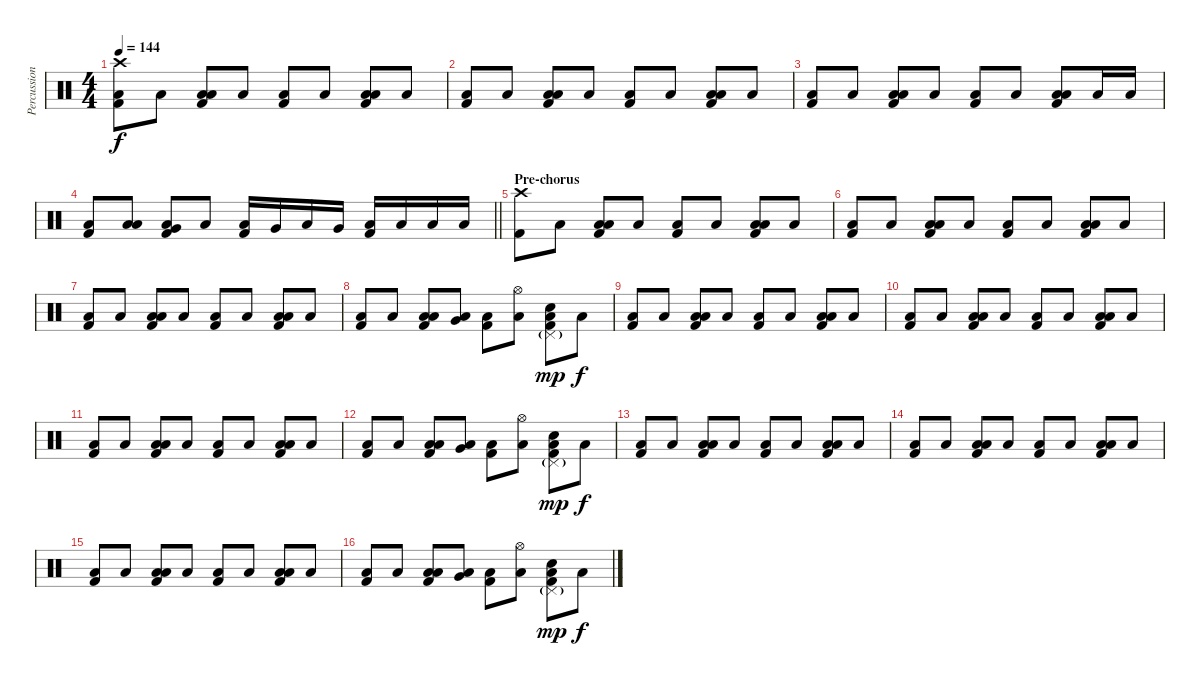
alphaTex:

\track ("Percussion" "Percussion") {instrument percussion}
\staff {score}
\articulation defaults
\ts (4 4)
\tempo 144
\clef neutral
\ks c
("Crash high (hit)" "Low Floor Tom (hit)" "Kick (hit) 2").8{dy f} "Low Floor Tom (hit)".8 ("Low Tom (hit)" "Low Floor Tom (hit)" "Kick (hit) 2").8 "Low Floor Tom (hit)".8 ("Low Floor Tom (hit)" "Kick (hit) 2").8 "Low Floor Tom (hit)".8 ("Low Tom (hit)" "Low Floor Tom (hit)" "Kick (hit) 2").8 "Low Floor Tom (hit)".8 |
("Low Floor Tom (hit)" "Kick (hit) 2").8 "Low Floor Tom (hit)".8 ("Low Tom (hit)" "Low Floor Tom (hit)" "Kick (hit) 2").8 "Low Floor Tom (hit)".8 ("Low Floor Tom (hit)" "Kick (hit) 2").8 "Low Floor Tom (hit)".8 ("Low Tom (hit)" "Low Floor Tom (hit)" "Kick (hit) 2").8 "Low Floor Tom (hit)".8 |
("Low Floor Tom (hit)" "Kick (hit) 2").8 "Low Floor Tom (hit)".8 ("Low Tom (hit)" "Low Floor Tom (hit)" "Kick (hit) 2").8 "Low Floor Tom (hit)".8 ("Low Floor Tom (hit)" "Kick (hit) 2").8 "Low Floor Tom (hit)".8 ("Low Tom (hit)" "Low Floor Tom (hit)" "Kick (hit) 2").8 "Low Floor Tom (hit)".16 "Low Tom (hit)".16 |
\barLineRight lightlight
("Low Floor Tom (hit)" "Kick (hit) 2").8 ("Low Tom (hit)" "Low Floor Tom (hit)").8 ("Very Low Tom (hit)" "Low Floor Tom (hit)" "Kick (hit) 2").8 "Low Floor Tom (hit)".8 ("Low Floor Tom (hit)" "Kick (hit) 2").16 "Very Low Tom (hit)".16 "Low Floor Tom (hit)".16 "Very Low Tom (hit)".16 ("Low Floor Tom (hit)" "Kick (hit) 2").16 "Low Floor Tom (hit)".16 "Low Floor Tom (hit)".16 "Low Floor Tom (hit)".16 |
\section ("" "Pre-chorus")
("Crash high (hit)" "Kick (hit) 2").8 "Low Floor Tom (hit)".8 ("Low Tom (hit)" "Low Floor Tom (hit)" "Kick (hit) 2").8 "Low Floor Tom (hit)".8 ("Low Floor Tom (hit)" "Kick (hit) 2").8 "Low Floor Tom (hit)".8 ("Low Tom (hit)" "Low Floor Tom (hit)" "Kick (hit) 2").8 "Low Floor Tom (hit)".8 |
("Low Floor Tom (hit)" "Kick (hit) 2").8 "Low Floor Tom (hit)".8 ("Low Tom (hit)" "Low Floor Tom (hit)" "Kick (hit) 2").8 "Low Floor Tom (hit)".8 ("Low Floor Tom (hit)" "Kick (hit) 2").8 "Low Floor Tom (hit)".8 ("Low Tom (hit)" "Low Floor Tom (hit)" "Kick (hit) 2").8 "Low Floor Tom (hit)".8 |
("Low Floor Tom (hit)" "Kick (hit) 2").8 "Low Floor Tom (hit)".8 ("Low Tom (hit)" "Low Floor Tom (hit)" "Kick (hit) 2").8 "Low Floor Tom (hit)".8 ("Low Floor Tom (hit)" "Kick (hit) 2").8 "Low Floor Tom (hit)".8 ("Low Tom (hit)" "Low Floor Tom (hit)" "Kick (hit) 2").8 "Low Floor Tom (hit)".8 |
("Low Floor Tom (hit)" "Kick (hit) 2").8 "Low Floor Tom (hit)".8 ("Low Tom (hit)" "Low Floor Tom (hit)" "Kick (hit) 2").8 ("Very Low Tom (hit)" "Low Floor Tom (hit)").8 ("Low Floor Tom (hit)" "Kick (hit) 2").8 ("Hi-Hat (open)" "Low Floor Tom (hit)").8 ("Pedal Hi-Hat (hit)"{g} "Electric Snare (hit)" "Low Floor Tom (hit)" "Kick (hit) 2").8{dy mp} "Low Floor Tom (hit)".8{dy f} |
("Low Floor Tom (hit)" "Kick (hit) 2").8 "Low Floor Tom (hit)".8 ("Low Tom (hit)" "Low Floor Tom (hit)" "Kick (hit) 2").8 "Low Floor Tom (hit)".8 ("Low Floor Tom (hit)" "Kick (hit) 2").8 "Low Floor Tom (hit)".8 ("Low Tom (hit)" "Low Floor Tom (hit)" "Kick (hit) 2").8 "Low Floor Tom (hit)".8 |
("Low Floor Tom (hit)" "Kick (hit) 2").8 "Low Floor Tom (hit)".8 ("Low Tom (hit)" "Low Floor Tom (hit)" "Kick (hit) 2").8 "Low Floor Tom (hit)".8 ("Low Floor Tom (hit)" "Kick (hit) 2").8 "Low Floor Tom (hit)".8 ("Low Tom (hit)" "Low Floor Tom (hit)" "Kick (hit) 2").8 "Low Floor Tom (hit)".8 |
("Low Floor Tom (hit)" "Kick (hit) 2").8 "Low Floor Tom (hit)".8 ("Low Tom (hit)" "Low Floor Tom (hit)" "Kick (hit) 2").8 "Low Floor Tom (hit)".8 ("Low Floor Tom (hit)" "Kick (hit) 2").8 "Low Floor Tom (hit)".8 ("Low Tom (hit)" "Low Floor Tom (hit)" "Kick (hit) 2").8 "Low Floor Tom (hit)".8 |
("Low Floor Tom (hit)" "Kick (hit) 2").8 "Low Floor Tom (hit)".8 ("Low Tom (hit)" "Low Floor Tom (hit)" "Kick (hit) 2").8 ("Very Low Tom (hit)" "Low Floor Tom (hit)").8 ("Low Floor Tom (hit)" "Kick (hit) 2").8 ("Hi-Hat (open)" "Low Floor Tom (hit)").8 ("Pedal Hi-Hat (hit)"{g} "Electric Snare (hit)" "Low Floor Tom (hit)" "Kick (hit) 2").8{dy mp} "Low Floor Tom (hit)".8{dy f} |
("Low Floor Tom (hit)" "Kick (hit) 2").8 "Low Floor Tom (hit)".8 ("Low Tom (hit)" "Low Floor Tom (hit)" "Kick (hit) 2").8 "Low Floor Tom (hit)".8 ("Low Floor Tom (hit)" "Kick (hit) 2").8 "Low Floor Tom (hit)".8 ("Low Tom (hit)" "Low Floor Tom (hit)" "Kick (hit) 2").8 "Low Floor Tom (hit)".8 |
("Low Floor Tom (hit)" "Kick (hit) 2").8 "Low Floor Tom (hit)".8 ("Low Tom (hit)" "Low Floor Tom (hit)" "Kick (hit) 2").8 "Low Floor Tom (hit)".8 ("Low Floor Tom (hit)" "Kick (hit) 2").8 "Low Floor Tom (hit)".8 ("Low Tom (hit)" "Low Floor Tom (hit)" "Kick (hit) 2").8 "Low Floor Tom (hit)".8 |
("Low Floor Tom (hit)" "Kick (hit) 2").8 "Low Floor Tom (hit)".8 ("Low Tom (hit)" "Low Floor Tom (hit)" "Kick (hit) 2").8 "Low Floor Tom (hit)".8 ("Low Floor Tom (hit)" "Kick (hit) 2").8 "Low Floor Tom (hit)".8 ("Low Tom (hit)" "Low Floor Tom (hit)" "Kick (hit) 2").8 "Low Floor Tom (hit)".8 |
("Low Floor Tom (hit)" "Kick (hit) 2").8 "Low Floor Tom (hit)".8 ("Low Tom (hit)" "Low Floor Tom (hit)" "Kick (hit) 2").8 ("Very Low Tom (hit)" "Low Floor Tom (hit)").8 ("Low Floor Tom (hit)" "Kick (hit) 2").8 ("Hi-Hat (open)" "Low Floor Tom (hit)").8 ("Pedal Hi-Hat (hit)"{g} "Electric Snare (hit)" "Low Floor Tom (hit)" "Kick (hit) 2").8{dy mp} "Low Floor Tom (hit)".8{dy f}
